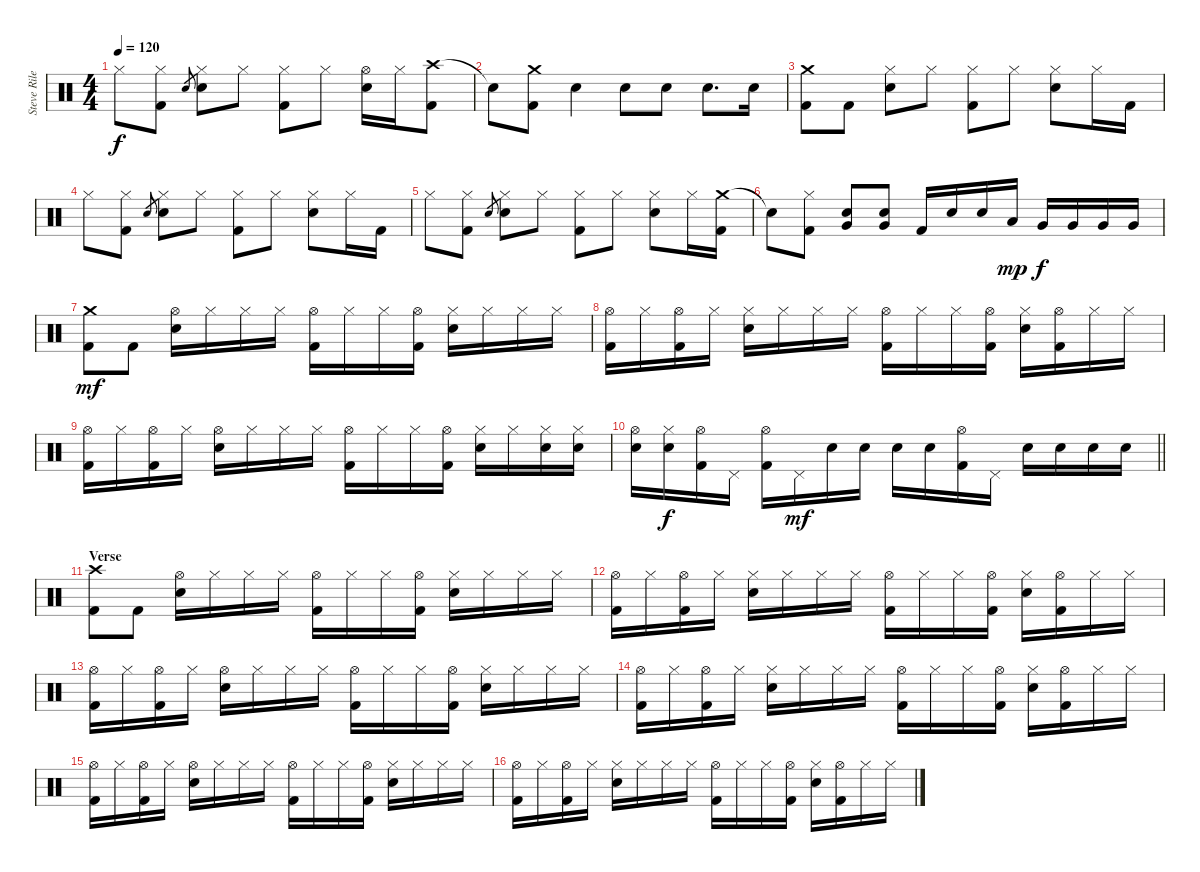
\track ("Steve Riley" "Steve Rile") {instrument percussion}
\staff {score}
\articulation defaults
\ts (4 4)
\tempo 120
\clef neutral
\ks c "Hi-Hat (closed)".8{dy f}
("Hi-Hat (closed)" "Kick (hit) 2").8 "Snare (hit) 2".8{gr} ("Hi-Hat (closed)" "Snare (hit) 2").8 "Hi-Hat (closed)".8 ("Hi-Hat (closed)" "Kick (hit) 2").8 "Hi-Hat (closed)".8 ("Hi-Hat (open)" "Snare (hit) 2").16 "Hi-Hat (closed)".16 ("Crash high (hit)" "Kick (hit) 2").8 |
"Snare (hit)"{t}.8 ("Crash medium (hit)" "Kick (hit) 2").8 "Snare (hit) 2".4 "Snare (hit) 2".8 "Snare (hit) 2".8 "Snare (hit) 2".8{d} "Snare (hit) 2".16 |
("Crash medium (hit)" "Kick (hit) 2").8 "Kick (hit) 2".8 ("Hi-Hat (closed)" "Snare (hit) 2").8 "Hi-Hat (closed)".8 ("Hi-Hat (closed)" "Kick (hit) 2").8 "Hi-Hat (closed)".8 ("Hi-Hat (closed)" "Snare (hit) 2").8 "Hi-Hat (closed)".16 "Kick (hit) 2".16 |
"Hi-Hat (closed)".8 ("Hi-Hat (closed)" "Kick (hit) 2").8 "Snare (hit) 2".8{gr} ("Hi-Hat (closed)" "Snare (hit) 2").8 "Hi-Hat (closed)".8 ("Hi-Hat (closed)" "Kick (hit) 2").8 "Hi-Hat (closed)".8 ("Hi-Hat (closed)" "Snare (hit) 2").8 "Hi-Hat (closed)".16 "Kick (hit) 2".16 |
"Hi-Hat (closed)".8 ("Hi-Hat (closed)" "Kick (hit) 2").8 "Snare (hit) 2".8{gr} ("Hi-Hat (closed)" "Snare (hit) 2").8 "Hi-Hat (closed)".8 ("Hi-Hat (closed)" "Kick (hit) 2").8 "Hi-Hat (closed)".8 ("Hi-Hat (closed)" "Snare (hit) 2").8 "Hi-Hat (closed)".16 ("Crash medium (hit)" "Kick (hit) 2").16 |
"Snare (hit)"{t}.8 ("Hi-Hat (closed)" "Kick (hit) 2").8 ("Very Low Tom (hit)" "Snare (hit) 2").8 ("Very Low Tom (hit)" "Snare (hit) 2").8 "Kick (hit) 2".16 "Snare (hit) 2".16 "Snare (hit) 2".16 "Low Tom (hit)".16{dy mp} "Very Low Tom (hit)".16{dy f} "Very Low Tom (hit)".16 "Very Low Tom (hit)".16 "Very Low Tom (hit)".16 |
("Crash medium (hit)" "Kick (hit) 2").8{dy mf} "Kick (hit) 2".8 ("Hi-Hat (open)" "Snare (hit) 2").16 "Hi-Hat (closed)".16 "Hi-Hat (closed)".16 "Hi-Hat (closed)".16 ("Hi-Hat (open)" "Kick (hit) 2").16 "Hi-Hat (closed)".16 "Hi-Hat (closed)".16 ("Hi-Hat (open)" "Kick (hit) 2").16 ("Hi-Hat (closed)" "Snare (hit) 2").16 "Hi-Hat (closed)".16 "Hi-Hat (closed)".16 "Hi-Hat (closed)".16 |
("Hi-Hat (open)" "Kick (hit) 2").16 "Hi-Hat (closed)".16 ("Hi-Hat (open)" "Kick (hit) 2").16 "Hi-Hat (closed)".16 ("Hi-Hat (closed)" "Snare (hit) 2").16 "Hi-Hat (closed)".16 "Hi-Hat (closed)".16 "Hi-Hat (closed)".16 ("Hi-Hat (open)" "Kick (hit) 2").16 "Hi-Hat (closed)".16 "Hi-Hat (closed)".16 ("Hi-Hat (open)" "Kick (hit) 2").16 ("Hi-Hat (closed)" "Snare (hit) 2").16 ("Hi-Hat (open)" "Kick (hit) 2").16 "Hi-Hat (closed)".16 "Hi-Hat (closed)".16 |
("Hi-Hat (open)" "Kick (hit) 2").16 "Hi-Hat (closed)".16 ("Hi-Hat (open)" "Kick (hit) 2").16 "Hi-Hat (closed)".16 ("Hi-Hat (open)" "Snare (hit) 2").16 "Hi-Hat (closed)".16 "Hi-Hat (closed)".16 "Hi-Hat (closed)".16 ("Hi-Hat (open)" "Kick (hit) 2").16 "Hi-Hat (closed)".16 "Hi-Hat (closed)".16 ("Hi-Hat (open)" "Kick (hit) 2").16 ("Hi-Hat (closed)" "Snare (hit) 2").16 "Hi-Hat (closed)".16 ("Hi-Hat (closed)" "Snare (hit) 2").16 ("Hi-Hat (closed)" "Snare (hit) 2").16 |
\barLineRight lightlight
("Hi-Hat (open)" "Snare (hit) 2").16 ("Hi-Hat (closed)" "Snare (hit) 2").16{dy f} ("Hi-Hat (open)" "Kick (hit) 2").16 "Pedal Hi-Hat (hit)".16 ("Hi-Hat (open)" "Kick (hit) 2").16 "Pedal Hi-Hat (hit)".16{dy mf} "Snare (hit) 2".16 "Snare (hit) 2".16 "Snare (hit) 2".16 "Snare (hit) 2".16 ("Hi-Hat (open)" "Kick (hit) 2").16 "Pedal Hi-Hat (hit)".16 "Snare (hit) 2".16 "Snare (hit) 2".16 "Snare (hit) 2".16 "Snare (hit) 2".16 |
\section ("" "Verse")
("Crash high (hit)" "Kick (hit) 2").8 "Kick (hit) 2".8 ("Hi-Hat (open)" "Snare (hit) 2").16 "Hi-Hat (closed)".16 "Hi-Hat (closed)".16 "Hi-Hat (closed)".16 ("Hi-Hat (open)" "Kick (hit) 2").16 "Hi-Hat (closed)".16 "Hi-Hat (closed)".16 ("Hi-Hat (open)" "Kick (hit) 2").16 ("Hi-Hat (closed)" "Snare (hit) 2").16 "Hi-Hat (closed)".16 "Hi-Hat (closed)".16 "Hi-Hat (closed)".16 |
("Hi-Hat (open)" "Kick (hit) 2").16 "Hi-Hat (closed)".16 ("Hi-Hat (open)" "Kick (hit) 2").16 "Hi-Hat (closed)".16 ("Hi-Hat (closed)" "Snare (hit) 2").16 "Hi-Hat (closed)".16 "Hi-Hat (closed)".16 "Hi-Hat (closed)".16 ("Hi-Hat (open)" "Kick (hit) 2").16 "Hi-Hat (closed)".16 "Hi-Hat (closed)".16 ("Hi-Hat (open)" "Kick (hit) 2").16 ("Hi-Hat (closed)" "Snare (hit) 2").16 ("Hi-Hat (open)" "Kick (hit) 2").16 "Hi-Hat (closed)".16 "Hi-Hat (closed)".16 |
("Hi-Hat (open)" "Kick (hit) 2").16 "Hi-Hat (closed)".16 ("Hi-Hat (open)" "Kick (hit) 2").16 "Hi-Hat (closed)".16 ("Hi-Hat (open)" "Snare (hit) 2").16 "Hi-Hat (closed)".16 "Hi-Hat (closed)".16 "Hi-Hat (closed)".16 ("Hi-Hat (open)" "Kick (hit) 2").16 "Hi-Hat (closed)".16 "Hi-Hat (closed)".16 ("Hi-Hat (open)" "Kick (hit) 2").16 ("Hi-Hat (closed)" "Snare (hit) 2").16 "Hi-Hat (closed)".16 "Hi-Hat (closed)".16 "Hi-Hat (closed)".16 |
("Hi-Hat (open)" "Kick (hit) 2").16 "Hi-Hat (closed)".16 ("Hi-Hat (open)" "Kick (hit) 2").16 "Hi-Hat (closed)".16 ("Hi-Hat (closed)" "Snare (hit) 2").16 "Hi-Hat (closed)".16 "Hi-Hat (closed)".16 "Hi-Hat (closed)".16 ("Hi-Hat (open)" "Kick (hit) 2").16 "Hi-Hat (closed)".16 "Hi-Hat (closed)".16 ("Hi-Hat (open)" "Kick (hit) 2").16 ("Hi-Hat (closed)" "Snare (hit) 2").16 ("Hi-Hat (open)" "Kick (hit) 2").16 "Hi-Hat (closed)".16 "Hi-Hat (closed)".16 |
("Hi-Hat (open)" "Kick (hit) 2").16 "Hi-Hat (closed)".16 ("Hi-Hat (open)" "Kick (hit) 2").16 "Hi-Hat (closed)".16 ("Hi-Hat (open)" "Snare (hit) 2").16 "Hi-Hat (closed)".16 "Hi-Hat (closed)".16 "Hi-Hat (closed)".16 ("Hi-Hat (open)" "Kick (hit) 2").16 "Hi-Hat (closed)".16 "Hi-Hat (closed)".16 ("Hi-Hat (open)" "Kick (hit) 2").16 ("Hi-Hat (closed)" "Snare (hit) 2").16 "Hi-Hat (closed)".16 "Hi-Hat (closed)".16 "Hi-Hat (closed)".16 |
("Hi-Hat (open)" "Kick (hit) 2").16 "Hi-Hat (closed)".16 ("Hi-Hat (open)" "Kick (hit) 2").16 "Hi-Hat (closed)".16 ("Hi-Hat (closed)" "Snare (hit) 2").16 "Hi-Hat (closed)".16 "Hi-Hat (closed)".16 "Hi-Hat (closed)".16 ("Hi-Hat (open)" "Kick (hit) 2").16 "Hi-Hat (closed)".16 "Hi-Hat (closed)".16 ("Hi-Hat (open)" "Kick (hit) 2").16 ("Hi-Hat (closed)" "Snare (hit) 2").16 ("Hi-Hat (open)" "Kick (hit) 2").16 "Hi-Hat (closed)".16 "Hi-Hat (closed)".16
